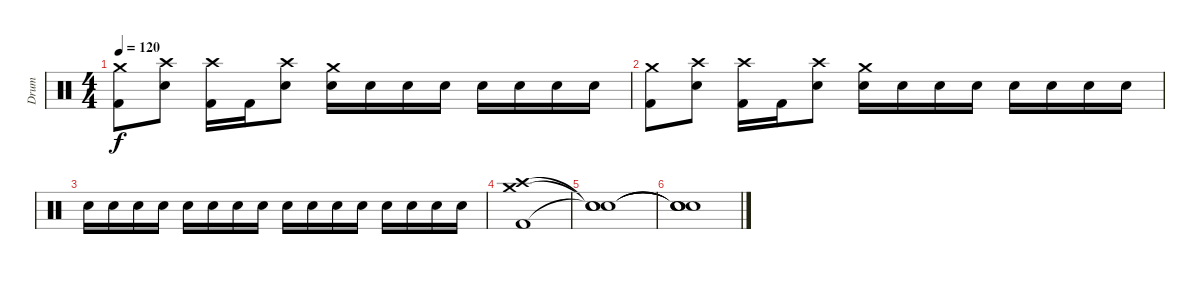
\track ("Drum" "Drum") {instrument percussion}
\staff {score}
\articulation defaults
\ts (4 4)
\tempo 120
\clef neutral
\ks c
("Crash medium (hit)" "Kick (hit) 2").8{dy f} ("Crash high (hit)" "Electric Snare (hit)").8 ("Crash high (hit)" "Kick (hit) 2").16 "Kick (hit) 2".16 ("Crash high (hit)" "Electric Snare (hit)").8 ("Crash medium (hit)" "Electric Snare (hit)").16 "Electric Snare (hit)".16 "Electric Snare (hit)".16 "Electric Snare (hit)".16 "Electric Snare (hit)".16 "Electric Snare (hit)".16 "Electric Snare (hit)".16 "Electric Snare (hit)".16 |
("Crash medium (hit)" "Kick (hit) 2").8 ("Crash high (hit)" "Electric Snare (hit)").8 ("Crash high (hit)" "Kick (hit) 2").16 "Kick (hit) 2".16 ("Crash high (hit)" "Electric Snare (hit)").8 ("Crash medium (hit)" "Electric Snare (hit)").16 "Electric Snare (hit)".16 "Electric Snare (hit)".16 "Electric Snare (hit)".16 "Electric Snare (hit)".16 "Electric Snare (hit)".16 "Electric Snare (hit)".16 "Electric Snare (hit)".16 |
"Electric Snare (hit)".16 "Electric Snare (hit)".16 "Electric Snare (hit)".16 "Electric Snare (hit)".16 "Electric Snare (hit)".16 "Electric Snare (hit)".16 "Electric Snare (hit)".16 "Electric Snare (hit)".16 "Electric Snare (hit)".16 "Electric Snare (hit)".16 "Electric Snare (hit)".16 "Electric Snare (hit)".16 "Electric Snare (hit)".16 "Electric Snare (hit)".16 "Electric Snare (hit)".16 "Electric Snare (hit)".16 |
("Crash high (hit)" "Crash medium (hit)" "Kick (hit) 2").1 |
("Snare (hit)"{t} "Snare (hit)"{t} "Snare (hit)"{t}).1 |
("Snare (hit)"{t} "Snare (hit)"{t} "Snare (hit)"{t} "Snare (hit)").1
